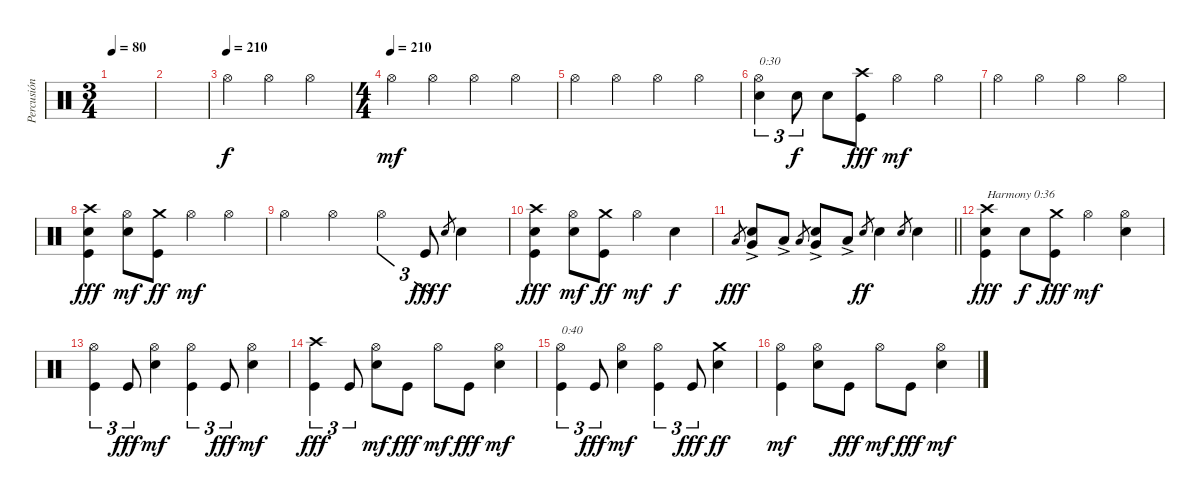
\track ("Percusión" "Percusión") {instrument percussion}
\staff {score}
\articulation defaults
\ts (3 4)
\tempo 80
\clef neutral
\ks c
|
|
\tempo (210)
"Hi-Hat (open)".4 "Hi-Hat (open)".4 "Hi-Hat (open)".4 |
\ts (4 4)
\tempo (210)
"Hi-Hat (open)".4{dy mf} "Hi-Hat (open)".4 "Hi-Hat (open)".4 "Hi-Hat (open)".4 |
"Hi-Hat (open)".4 "Hi-Hat (open)".4 "Hi-Hat (open)".4 "Hi-Hat (open)".4 |
("Electric Snare (hit)" "Hi-Hat (open)").4{tu (3 2) txt "0:30"} "Electric Snare (hit)".8{tu (3 2) dy f} "Electric Snare (hit)".8 ("Kick (hit)" "Crash high (hit)").8{dy fff} "Hi-Hat (open)".4{dy mf} "Hi-Hat (open)".4 |
"Hi-Hat (open)".4 "Hi-Hat (open)".4 "Hi-Hat (open)".4 "Hi-Hat (open)".4 |
("Kick (hit)" "Electric Snare (hit)" "Crash high (hit)").4{dy fff} ("Electric Snare (hit)" "Hi-Hat (open)").8{dy mf} ("Kick (hit)" "Crash medium (hit)").8{dy ff} "Hi-Hat (open)".4{dy mf} "Hi-Hat (open)".4 |
"Hi-Hat (open)".4 "Hi-Hat (open)".4 "Hi-Hat (open)".4{tu (3 2)} "Kick (hit)".8{tu (3 2) dy fff} "Electric Snare (hit)".8{gr dy f} "Electric Snare (hit)".4 |
("Kick (hit)" "Electric Snare (hit)" "Crash high (hit)").4{dy fff} ("Electric Snare (hit)" "Hi-Hat (open)").8{dy mf} ("Kick (hit)" "Crash medium (hit)").8{dy ff} "Hi-Hat (open)".4{dy mf} "Electric Snare (hit)".4{dy f} |
\barLineRight lightlight "Low Tom (hit)".8{gr dy fff}
("Very Low Tom (hit)"{ac} "Electric Snare (hit)").8 "Low Tom (hit)"{ac}.8 "Low Tom (hit)".8{gr} ("Very Low Tom (hit)"{ac} "Electric Snare (hit)").8 "Low Tom (hit)"{ac}.8 "Electric Snare (hit)".8{gr dy ff} "Electric Snare (hit)".4 "Electric Snare (hit)".8{gr} "Electric Snare (hit)".4 |
("Kick (hit)" "Electric Snare (hit)" "Crash high (hit)").4{txt "Harmony 0:36" dy fff} "Electric Snare (hit)".8{dy f} ("Kick (hit)" "Crash medium (hit)").8{dy fff} "Hi-Hat (open)".4{dy mf} ("Electric Snare (hit)" "Hi-Hat (open)").4 |
("Kick (hit)" "Hi-Hat (open)").4{tu (3 2)} "Kick (hit)".8{tu (3 2) dy fff} ("Electric Snare (hit)" "Hi-Hat (open)").4{dy mf} ("Kick (hit)" "Hi-Hat (open)").4{tu (3 2)} "Kick (hit)".8{tu (3 2) dy fff} ("Electric Snare (hit)" "Hi-Hat (open)").4{dy mf} |
("Kick (hit)" "Crash high (hit)").4{tu (3 2) dy fff} "Kick (hit)".8{tu (3 2)} ("Electric Snare (hit)" "Hi-Hat (open)").8{dy mf} "Kick (hit)".8{dy fff} "Hi-Hat (open)".8{dy mf} "Kick (hit)".8{dy fff} ("Electric Snare (hit)" "Hi-Hat (open)").4{dy mf} |
("Kick (hit)" "Hi-Hat (open)").4{tu (3 2) txt "0:40"} "Kick (hit)".8{tu (3 2) dy fff} ("Electric Snare (hit)" "Hi-Hat (open)").4{dy mf} ("Kick (hit)" "Hi-Hat (open)").4{tu (3 2)} "Kick (hit)".8{tu (3 2) dy fff} ("Electric Snare (hit)" "Crash medium (hit)").4{dy ff} |
("Kick (hit)" "Hi-Hat (open)").4{dy mf} ("Electric Snare (hit)" "Hi-Hat (open)").8 "Kick (hit)".8{dy fff} "Hi-Hat (open)".8{dy mf} "Kick (hit)".8{dy fff} ("Electric Snare (hit)" "Hi-Hat (open)").4{dy mf}
